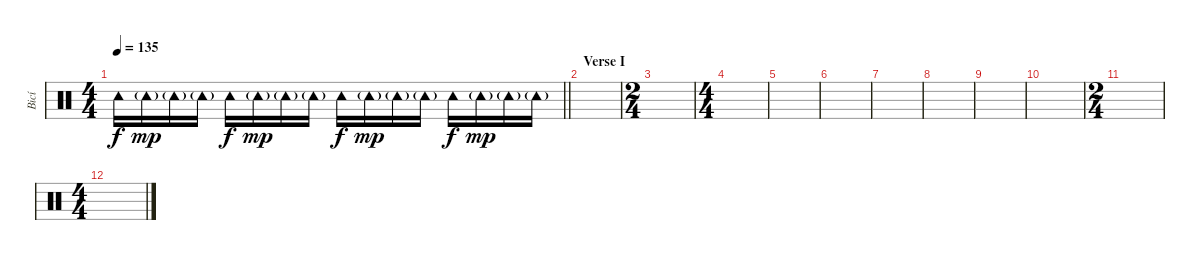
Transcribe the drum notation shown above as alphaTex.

\track ("Bicí" "Bicí") {instrument percussion}
\staff {score}
\articulation defaults
\ts (4 4)
\tempo 135
\clef neutral
\barLineRight lightlight
\ks c "Tambourine (hit)".16{dy f} "Tambourine (hit)"{g}.16{dy mp} "Tambourine (hit)"{g}.16 "Tambourine (hit)"{g}.16 "Tambourine (hit)".16{dy f} "Tambourine (hit)"{g}.16{dy mp} "Tambourine (hit)"{g}.16 "Tambourine (hit)"{g}.16 "Tambourine (hit)".16{dy f} "Tambourine (hit)"{g}.16{dy mp} "Tambourine (hit)"{g}.16 "Tambourine (hit)"{g}.16 "Tambourine (hit)".16{dy f} "Tambourine (hit)"{g}.16{dy mp} "Tambourine (hit)"{g}.16 "Tambourine (hit)"{g}.16
|
\section ("" "Verse I")
|
\ts (2 4)
|
\ts (4 4)
|
|
|
|
|
|
|
\ts (2 4)
|
\ts (4 4)
